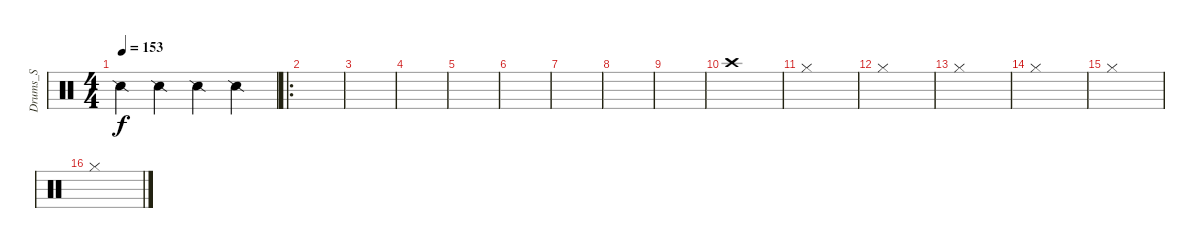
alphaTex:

\track ("Drums_S" "Drums_S") {instrument percussion}
\staff {score}
\articulation defaults
\ts (4 4)
\tempo 153
\clef neutral
\ks c "Snare (side stick) 2".4{dy f} "Snare (side stick) 2".4 "Snare (side stick) 2".4 "Snare (side stick) 2".4
|
\ro
|
|
|
|
|
|
|
|
"Crash high (hit)".1 |
"Hi-Hat (closed)".1 |
"Hi-Hat (closed)".1 |
"Hi-Hat (closed)".1 |
"Hi-Hat (closed)".1 |
"Hi-Hat (closed)".1 |
"Hi-Hat (closed)".1
